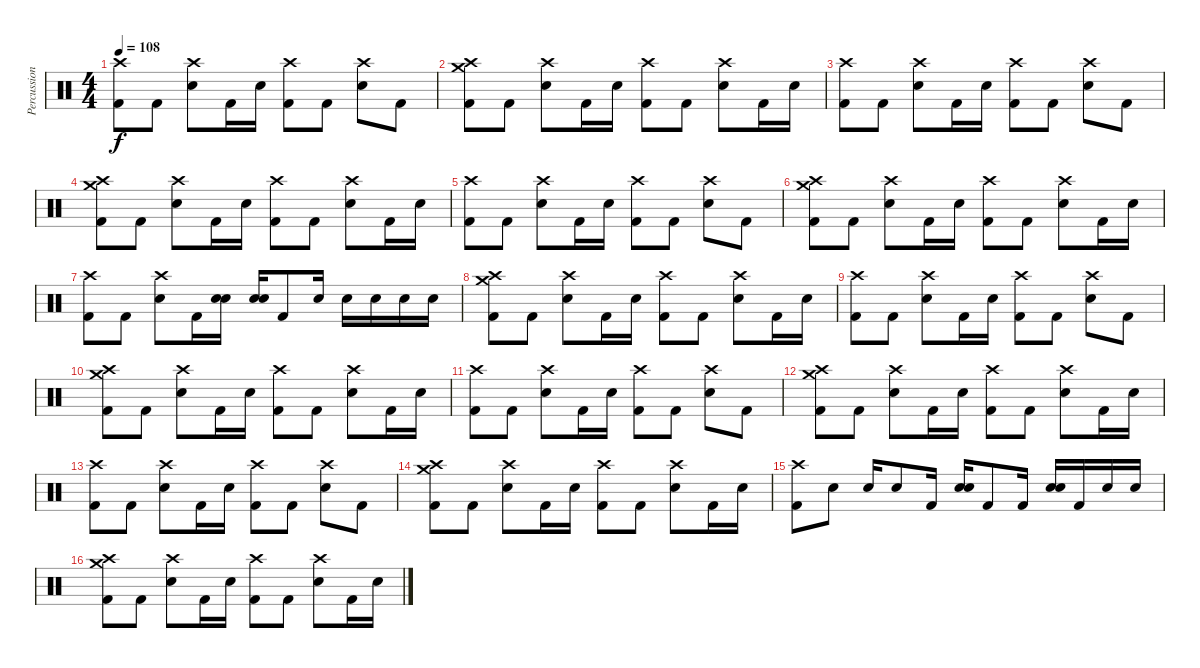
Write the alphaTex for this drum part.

\track ("Percussion" "Percussion") {instrument percussion}
\staff {score}
\articulation defaults
\ts (4 4)
\tempo 108
\clef neutral
\ks c
("Crash high (hit)" "Kick (hit) 2").8{dy f} "Kick (hit) 2".8 ("Crash high (hit)" "Electric Snare (hit)").8 "Kick (hit) 2".16 "Electric Snare (hit)".16 ("Crash high (hit)" "Kick (hit) 2").8 "Kick (hit) 2".8 ("Crash high (hit)" "Electric Snare (hit)").8 "Kick (hit) 2".8 |
("Crash medium (hit)" "Crash high (hit)" "Kick (hit) 2").8 "Kick (hit) 2".8 ("Crash high (hit)" "Electric Snare (hit)").8 "Kick (hit) 2".16 "Electric Snare (hit)".16 ("Crash high (hit)" "Kick (hit) 2").8 "Kick (hit) 2".8 ("Crash high (hit)" "Electric Snare (hit)").8 "Kick (hit) 2".16 "Electric Snare (hit)".16 |
("Crash high (hit)" "Kick (hit) 2").8 "Kick (hit) 2".8 ("Crash high (hit)" "Electric Snare (hit)").8 "Kick (hit) 2".16 "Electric Snare (hit)".16 ("Crash high (hit)" "Kick (hit) 2").8 "Kick (hit) 2".8 ("Crash high (hit)" "Electric Snare (hit)").8 "Kick (hit) 2".8 |
("Crash medium (hit)" "Crash high (hit)" "Kick (hit) 2").8 "Kick (hit) 2".8 ("Crash high (hit)" "Electric Snare (hit)").8 "Kick (hit) 2".16 "Electric Snare (hit)".16 ("Crash high (hit)" "Kick (hit) 2").8 "Kick (hit) 2".8 ("Crash high (hit)" "Electric Snare (hit)").8 "Kick (hit) 2".16 "Electric Snare (hit)".16 |
("Crash high (hit)" "Kick (hit) 2").8 "Kick (hit) 2".8 ("Crash high (hit)" "Electric Snare (hit)").8 "Kick (hit) 2".16 "Electric Snare (hit)".16 ("Crash high (hit)" "Kick (hit) 2").8 "Kick (hit) 2".8 ("Crash high (hit)" "Electric Snare (hit)").8 "Kick (hit) 2".8 |
("Crash medium (hit)" "Crash high (hit)" "Kick (hit) 2").8 "Kick (hit) 2".8 ("Crash high (hit)" "Electric Snare (hit)").8 "Kick (hit) 2".16 "Electric Snare (hit)".16 ("Crash high (hit)" "Kick (hit) 2").8 "Kick (hit) 2".8 ("Crash high (hit)" "Electric Snare (hit)").8 "Kick (hit) 2".16 "Electric Snare (hit)".16 |
("Crash high (hit)" "Kick (hit) 2").8 "Kick (hit) 2".8 ("Crash high (hit)" "Electric Snare (hit)").8 "Kick (hit) 2".16 ("Electric Snare (hit)" "Electric Snare (hit)").16{bd 240} ("Electric Snare (hit)" "Electric Snare (hit)").16{bd 240} "Kick (hit) 2".8 "Electric Snare (hit)".16 "Electric Snare (hit)".16 "Electric Snare (hit)".16 "Electric Snare (hit)".16 "Electric Snare (hit)".16 |
("Crash medium (hit)" "Crash high (hit)" "Kick (hit) 2").8 "Kick (hit) 2".8 ("Crash high (hit)" "Electric Snare (hit)").8 "Kick (hit) 2".16 "Electric Snare (hit)".16 ("Crash high (hit)" "Kick (hit) 2").8 "Kick (hit) 2".8 ("Crash high (hit)" "Electric Snare (hit)").8 "Kick (hit) 2".16 "Electric Snare (hit)".16 |
("Crash high (hit)" "Kick (hit) 2").8 "Kick (hit) 2".8 ("Crash high (hit)" "Electric Snare (hit)").8 "Kick (hit) 2".16 "Electric Snare (hit)".16 ("Crash high (hit)" "Kick (hit) 2").8 "Kick (hit) 2".8 ("Crash high (hit)" "Electric Snare (hit)").8 "Kick (hit) 2".8 |
("Crash medium (hit)" "Crash high (hit)" "Kick (hit) 2").8 "Kick (hit) 2".8 ("Crash high (hit)" "Electric Snare (hit)").8 "Kick (hit) 2".16 "Electric Snare (hit)".16 ("Crash high (hit)" "Kick (hit) 2").8 "Kick (hit) 2".8 ("Crash high (hit)" "Electric Snare (hit)").8 "Kick (hit) 2".16 "Electric Snare (hit)".16 |
("Crash high (hit)" "Kick (hit) 2").8 "Kick (hit) 2".8 ("Crash high (hit)" "Electric Snare (hit)").8 "Kick (hit) 2".16 "Electric Snare (hit)".16 ("Crash high (hit)" "Kick (hit) 2").8 "Kick (hit) 2".8 ("Crash high (hit)" "Electric Snare (hit)").8 "Kick (hit) 2".8 |
("Crash medium (hit)" "Crash high (hit)" "Kick (hit) 2").8 "Kick (hit) 2".8 ("Crash high (hit)" "Electric Snare (hit)").8 "Kick (hit) 2".16 "Electric Snare (hit)".16 ("Crash high (hit)" "Kick (hit) 2").8 "Kick (hit) 2".8 ("Crash high (hit)" "Electric Snare (hit)").8 "Kick (hit) 2".16 "Electric Snare (hit)".16 |
("Crash high (hit)" "Kick (hit) 2").8 "Kick (hit) 2".8 ("Crash high (hit)" "Electric Snare (hit)").8 "Kick (hit) 2".16 "Electric Snare (hit)".16 ("Crash high (hit)" "Kick (hit) 2").8 "Kick (hit) 2".8 ("Crash high (hit)" "Electric Snare (hit)").8 "Kick (hit) 2".8 |
("Crash medium (hit)" "Crash high (hit)" "Kick (hit) 2").8 "Kick (hit) 2".8 ("Crash high (hit)" "Electric Snare (hit)").8 "Kick (hit) 2".16 "Electric Snare (hit)".16 ("Crash high (hit)" "Kick (hit) 2").8 "Kick (hit) 2".8 ("Crash high (hit)" "Electric Snare (hit)").8 "Kick (hit) 2".16 "Electric Snare (hit)".16 |
("Crash high (hit)" "Kick (hit) 2").8 "Electric Snare (hit)".8 "Electric Snare (hit)".16 "Electric Snare (hit)".8 "Kick (hit) 2".16 ("Electric Snare (hit)" "Electric Snare (hit)").16{bd 240} "Kick (hit) 2".8 "Kick (hit) 2".16 ("Electric Snare (hit)" "Electric Snare (hit)").16{bd 240} "Kick (hit) 2".16 "Electric Snare (hit)".16 "Electric Snare (hit)".16 |
("Crash medium (hit)" "Crash high (hit)" "Kick (hit) 2").8 "Kick (hit) 2".8 ("Crash high (hit)" "Electric Snare (hit)").8 "Kick (hit) 2".16 "Electric Snare (hit)".16 ("Crash high (hit)" "Kick (hit) 2").8 "Kick (hit) 2".8 ("Crash high (hit)" "Electric Snare (hit)").8 "Kick (hit) 2".16 "Electric Snare (hit)".16
